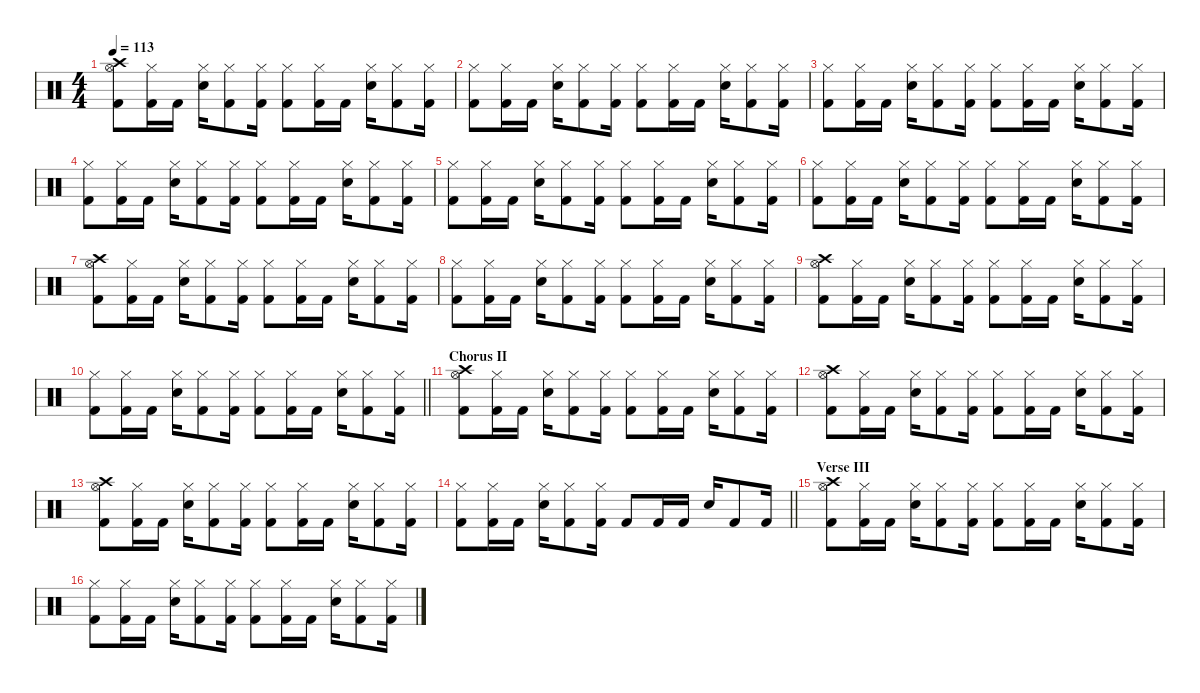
\defaultSystemsLayout 4
\hideDynamics
\bracketExtendMode nobrackets
\singleTrackTrackNamePolicy hidden
\multiTrackTrackNamePolicy hidden
\firstSystemTrackNameMode fullname
\firstSystemTrackNameOrientation horizontal
\otherSystemsTrackNameOrientation horizontal
\track ("Drums" "drm.") {instrument percussion}
\staff {score}
\articulation defaults
\ts (4 4)
\tempo 113
\clef neutral
\ks c
("Crash high (hit)" "Hi-Hat (open)" "Kick (hit) 2").8{dy f beam Down} ("Hi-Hat (closed)" "Kick (hit) 2").16{beam Down} "Kick (hit) 2".16{beam Down} ("Hi-Hat (closed)" "Snare (hit) 2").16{beam Down} ("Hi-Hat (closed)" "Kick (hit) 2").8{beam Down} ("Hi-Hat (closed)" "Kick (hit) 2").16{beam Down} ("Hi-Hat (closed)" "Kick (hit) 2").8{beam Down} ("Hi-Hat (closed)" "Kick (hit) 2").16{beam Down} "Kick (hit) 2".16{beam Down} ("Hi-Hat (closed)" "Snare (hit) 2").16{beam Down} ("Hi-Hat (closed)" "Kick (hit) 2").8{beam Down} ("Hi-Hat (closed)" "Kick (hit) 2").16{beam Down} |
("Hi-Hat (closed)" "Kick (hit) 2").8{beam Down} ("Hi-Hat (closed)" "Kick (hit) 2").16{beam Down} "Kick (hit) 2".16{beam Down} ("Hi-Hat (closed)" "Snare (hit) 2").16{beam Down} ("Hi-Hat (closed)" "Kick (hit) 2").8{beam Down} ("Hi-Hat (closed)" "Kick (hit) 2").16{beam Down} ("Hi-Hat (closed)" "Kick (hit) 2").8{beam Down} ("Hi-Hat (closed)" "Kick (hit) 2").16{beam Down} "Kick (hit) 2".16{beam Down} ("Hi-Hat (closed)" "Snare (hit) 2").16{beam Down} ("Hi-Hat (closed)" "Kick (hit) 2").8{beam Down} ("Hi-Hat (closed)" "Kick (hit) 2").16{beam Down} |
("Hi-Hat (closed)" "Kick (hit) 2").8{beam Down} ("Hi-Hat (closed)" "Kick (hit) 2").16{beam Down} "Kick (hit) 2".16{beam Down} ("Hi-Hat (closed)" "Snare (hit) 2").16{beam Down} ("Hi-Hat (closed)" "Kick (hit) 2").8{beam Down} ("Hi-Hat (closed)" "Kick (hit) 2").16{beam Down} ("Hi-Hat (closed)" "Kick (hit) 2").8{beam Down} ("Hi-Hat (closed)" "Kick (hit) 2").16{beam Down} "Kick (hit) 2".16{beam Down} ("Hi-Hat (closed)" "Snare (hit) 2").16{beam Down} ("Hi-Hat (closed)" "Kick (hit) 2").8{beam Down} ("Hi-Hat (closed)" "Kick (hit) 2").16{beam Down} |
("Hi-Hat (closed)" "Kick (hit) 2").8{beam Down} ("Hi-Hat (closed)" "Kick (hit) 2").16{beam Down} "Kick (hit) 2".16{beam Down} ("Hi-Hat (closed)" "Snare (hit) 2").16{beam Down} ("Hi-Hat (closed)" "Kick (hit) 2").8{beam Down} ("Hi-Hat (closed)" "Kick (hit) 2").16{beam Down} ("Hi-Hat (closed)" "Kick (hit) 2").8{beam Down} ("Hi-Hat (closed)" "Kick (hit) 2").16{beam Down} "Kick (hit) 2".16{beam Down} ("Hi-Hat (closed)" "Snare (hit) 2").16{beam Down} ("Hi-Hat (closed)" "Kick (hit) 2").8{beam Down} ("Hi-Hat (closed)" "Kick (hit) 2").16{beam Down} |
("Hi-Hat (closed)" "Kick (hit) 2").8{beam Down} ("Hi-Hat (closed)" "Kick (hit) 2").16{beam Down} "Kick (hit) 2".16{beam Down} ("Hi-Hat (closed)" "Snare (hit) 2").16{beam Down} ("Hi-Hat (closed)" "Kick (hit) 2").8{beam Down} ("Hi-Hat (closed)" "Kick (hit) 2").16{beam Down} ("Hi-Hat (closed)" "Kick (hit) 2").8{beam Down} ("Hi-Hat (closed)" "Kick (hit) 2").16{beam Down} "Kick (hit) 2".16{beam Down} ("Hi-Hat (closed)" "Snare (hit) 2").16{beam Down} ("Hi-Hat (closed)" "Kick (hit) 2").8{beam Down} ("Hi-Hat (closed)" "Kick (hit) 2").16{beam Down} |
("Hi-Hat (closed)" "Kick (hit) 2").8{beam Down} ("Hi-Hat (closed)" "Kick (hit) 2").16{beam Down} "Kick (hit) 2".16{beam Down} ("Hi-Hat (closed)" "Snare (hit) 2").16{beam Down} ("Hi-Hat (closed)" "Kick (hit) 2").8{beam Down} ("Hi-Hat (closed)" "Kick (hit) 2").16{beam Down} ("Hi-Hat (closed)" "Kick (hit) 2").8{beam Down} ("Hi-Hat (closed)" "Kick (hit) 2").16{beam Down} "Kick (hit) 2".16{beam Down} ("Hi-Hat (closed)" "Snare (hit) 2").16{beam Down} ("Hi-Hat (closed)" "Kick (hit) 2").8{beam Down} ("Hi-Hat (closed)" "Kick (hit) 2").16{beam Down} |
("Crash high (hit)" "Hi-Hat (open)" "Kick (hit) 2").8{beam Down} ("Hi-Hat (closed)" "Kick (hit) 2").16{beam Down} "Kick (hit) 2".16{beam Down} ("Hi-Hat (closed)" "Snare (hit) 2").16{beam Down} ("Hi-Hat (closed)" "Kick (hit) 2").8{beam Down} ("Hi-Hat (closed)" "Kick (hit) 2").16{beam Down} ("Hi-Hat (closed)" "Kick (hit) 2").8{beam Down} ("Hi-Hat (closed)" "Kick (hit) 2").16{beam Down} "Kick (hit) 2".16{beam Down} ("Hi-Hat (closed)" "Snare (hit) 2").16{beam Down} ("Hi-Hat (closed)" "Kick (hit) 2").8{beam Down} ("Hi-Hat (closed)" "Kick (hit) 2").16{beam Down} |
("Hi-Hat (closed)" "Kick (hit) 2").8{beam Down} ("Hi-Hat (closed)" "Kick (hit) 2").16{beam Down} "Kick (hit) 2".16{beam Down} ("Hi-Hat (closed)" "Snare (hit) 2").16{beam Down} ("Hi-Hat (closed)" "Kick (hit) 2").8{beam Down} ("Hi-Hat (closed)" "Kick (hit) 2").16{beam Down} ("Hi-Hat (closed)" "Kick (hit) 2").8{beam Down} ("Hi-Hat (closed)" "Kick (hit) 2").16{beam Down} "Kick (hit) 2".16{beam Down} ("Hi-Hat (closed)" "Snare (hit) 2").16{beam Down} ("Hi-Hat (closed)" "Kick (hit) 2").8{beam Down} ("Hi-Hat (closed)" "Kick (hit) 2").16{beam Down} |
("Crash high (hit)" "Hi-Hat (open)" "Kick (hit) 2").8{beam Down} ("Hi-Hat (closed)" "Kick (hit) 2").16{beam Down} "Kick (hit) 2".16{beam Down} ("Hi-Hat (closed)" "Snare (hit) 2").16{beam Down} ("Hi-Hat (closed)" "Kick (hit) 2").8{beam Down} ("Hi-Hat (closed)" "Kick (hit) 2").16{beam Down} ("Hi-Hat (closed)" "Kick (hit) 2").8{beam Down} ("Hi-Hat (closed)" "Kick (hit) 2").16{beam Down} "Kick (hit) 2".16{beam Down} ("Hi-Hat (closed)" "Snare (hit) 2").16{beam Down} ("Hi-Hat (closed)" "Kick (hit) 2").8{beam Down} ("Hi-Hat (closed)" "Kick (hit) 2").16{beam Down} |
\barLineRight lightlight
("Hi-Hat (closed)" "Kick (hit) 2").8{beam Down} ("Hi-Hat (closed)" "Kick (hit) 2").16{beam Down} "Kick (hit) 2".16{beam Down} ("Hi-Hat (closed)" "Snare (hit) 2").16{beam Down} ("Hi-Hat (closed)" "Kick (hit) 2").8{beam Down} ("Hi-Hat (closed)" "Kick (hit) 2").16{beam Down} ("Hi-Hat (closed)" "Kick (hit) 2").8{beam Down} ("Hi-Hat (closed)" "Kick (hit) 2").16{beam Down} "Kick (hit) 2".16{beam Down} ("Hi-Hat (closed)" "Snare (hit) 2").16{beam Down} ("Hi-Hat (closed)" "Kick (hit) 2").8{beam Down} ("Hi-Hat (closed)" "Kick (hit) 2").16{beam Down} |
\section ("" "Chorus II")
("Crash high (hit)" "Hi-Hat (open)" "Kick (hit) 2").8{beam Down} ("Hi-Hat (closed)" "Kick (hit) 2").16{beam Down} "Kick (hit) 2".16{beam Down} ("Hi-Hat (closed)" "Snare (hit) 2").16{beam Down} ("Hi-Hat (closed)" "Kick (hit) 2").8{beam Down} ("Hi-Hat (closed)" "Kick (hit) 2").16{beam Down} ("Hi-Hat (closed)" "Kick (hit) 2").8{beam Down} ("Hi-Hat (closed)" "Kick (hit) 2").16{beam Down} "Kick (hit) 2".16{beam Down} ("Hi-Hat (closed)" "Snare (hit) 2").16{beam Down} ("Hi-Hat (closed)" "Kick (hit) 2").8{beam Down} ("Hi-Hat (closed)" "Kick (hit) 2").16{beam Down} |
("Crash high (hit)" "Hi-Hat (open)" "Kick (hit) 2").8{beam Down} ("Hi-Hat (closed)" "Kick (hit) 2").16{beam Down} "Kick (hit) 2".16{beam Down} ("Hi-Hat (closed)" "Snare (hit) 2").16{beam Down} ("Hi-Hat (closed)" "Kick (hit) 2").8{beam Down} ("Hi-Hat (closed)" "Kick (hit) 2").16{beam Down} ("Hi-Hat (closed)" "Kick (hit) 2").8{beam Down} ("Hi-Hat (closed)" "Kick (hit) 2").16{beam Down} "Kick (hit) 2".16{beam Down} ("Hi-Hat (closed)" "Snare (hit) 2").16{beam Down} ("Hi-Hat (closed)" "Kick (hit) 2").8{beam Down} ("Hi-Hat (closed)" "Kick (hit) 2").16{beam Down} |
("Crash high (hit)" "Hi-Hat (open)" "Kick (hit) 2").8{beam Down} ("Hi-Hat (closed)" "Kick (hit) 2").16{beam Down} "Kick (hit) 2".16{beam Down} ("Hi-Hat (closed)" "Snare (hit) 2").16{beam Down} ("Hi-Hat (closed)" "Kick (hit) 2").8{beam Down} ("Hi-Hat (closed)" "Kick (hit) 2").16{beam Down} ("Hi-Hat (closed)" "Kick (hit) 2").8{beam Down} ("Hi-Hat (closed)" "Kick (hit) 2").16{beam Down} "Kick (hit) 2".16{beam Down} ("Hi-Hat (closed)" "Snare (hit) 2").16{beam Down} ("Hi-Hat (closed)" "Kick (hit) 2").8{beam Down} ("Hi-Hat (closed)" "Kick (hit) 2").16{beam Down} |
\barLineRight lightlight
("Hi-Hat (closed)" "Kick (hit) 2").8{beam Down} ("Hi-Hat (closed)" "Kick (hit) 2").16{beam Down} "Kick (hit) 2".16{beam Down} ("Hi-Hat (closed)" "Snare (hit) 2").16{beam Down} ("Hi-Hat (closed)" "Kick (hit) 2").8{beam Down} ("Hi-Hat (closed)" "Kick (hit) 2").16{beam Down} "Kick (hit) 2".8{beam Up} "Kick (hit) 2".16{beam Up} "Kick (hit) 2".16{beam Up} "Snare (hit) 2".16{beam Up} "Kick (hit) 2".8{beam Up} "Kick (hit) 2".16{beam Up} |
\section ("" "Verse III")
("Crash high (hit)" "Hi-Hat (open)" "Kick (hit) 2").8{beam Down} ("Hi-Hat (closed)" "Kick (hit) 2").16{beam Down} "Kick (hit) 2".16{beam Down} ("Hi-Hat (closed)" "Snare (hit) 2").16{beam Down} ("Hi-Hat (closed)" "Kick (hit) 2").8{beam Down} ("Hi-Hat (closed)" "Kick (hit) 2").16{beam Down} ("Hi-Hat (closed)" "Kick (hit) 2").8{beam Down} ("Hi-Hat (closed)" "Kick (hit) 2").16{beam Down} "Kick (hit) 2".16{beam Down} ("Hi-Hat (closed)" "Snare (hit) 2").16{beam Down} ("Hi-Hat (closed)" "Kick (hit) 2").8{beam Down} ("Hi-Hat (closed)" "Kick (hit) 2").16{beam Down} |
("Hi-Hat (closed)" "Kick (hit) 2").8{beam Down} ("Hi-Hat (closed)" "Kick (hit) 2").16{beam Down} "Kick (hit) 2".16{beam Down} ("Hi-Hat (closed)" "Snare (hit) 2").16{beam Down} ("Hi-Hat (closed)" "Kick (hit) 2").8{beam Down} ("Hi-Hat (closed)" "Kick (hit) 2").16{beam Down} ("Hi-Hat (closed)" "Kick (hit) 2").8{beam Down} ("Hi-Hat (closed)" "Kick (hit) 2").16{beam Down} "Kick (hit) 2".16{beam Down} ("Hi-Hat (closed)" "Snare (hit) 2").16{beam Down} ("Hi-Hat (closed)" "Kick (hit) 2").8{beam Down} ("Hi-Hat (closed)" "Kick (hit) 2").16{beam Down}
